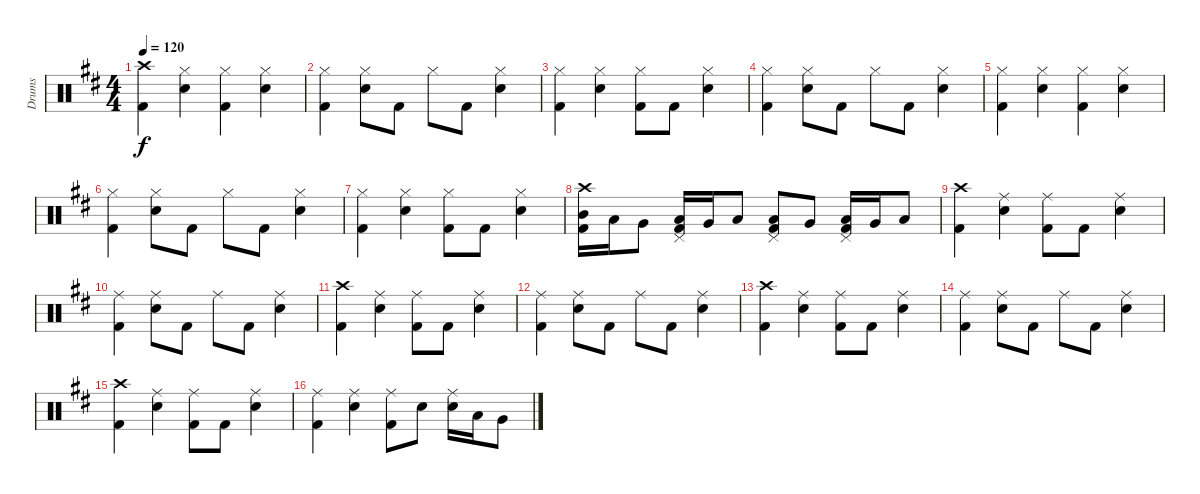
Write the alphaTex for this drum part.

\track ("Drums" "Drums") {instrument percussion}
\staff {score}
\articulation defaults
\ts (4 4)
\tempo 120
\clef neutral
\ks bminor
("Crash high (hit)" "Kick (hit) 2").4{dy f} ("Hi-Hat (closed)" "Electric Snare (hit)").4 ("Hi-Hat (closed)" "Kick (hit) 2").4 ("Hi-Hat (closed)" "Electric Snare (hit)").4 |
("Hi-Hat (closed)" "Kick (hit) 2").4 ("Hi-Hat (closed)" "Electric Snare (hit)").8 "Kick (hit) 2".8 "Hi-Hat (closed)".8 "Kick (hit) 2".8 ("Hi-Hat (closed)" "Electric Snare (hit)").4 |
("Hi-Hat (closed)" "Kick (hit) 2").4 ("Hi-Hat (closed)" "Electric Snare (hit)").4 ("Hi-Hat (closed)" "Kick (hit) 2").8 "Kick (hit) 2".8 ("Hi-Hat (closed)" "Electric Snare (hit)").4 |
("Hi-Hat (closed)" "Kick (hit) 2").4 ("Hi-Hat (closed)" "Electric Snare (hit)").8 "Kick (hit) 2".8 "Hi-Hat (closed)".8 "Kick (hit) 2".8 ("Hi-Hat (closed)" "Electric Snare (hit)").4 |
("Hi-Hat (closed)" "Kick (hit) 2").4 ("Hi-Hat (closed)" "Electric Snare (hit)").4 ("Hi-Hat (closed)" "Kick (hit) 2").4 ("Hi-Hat (closed)" "Electric Snare (hit)").4 |
("Hi-Hat (closed)" "Kick (hit) 2").4 ("Hi-Hat (closed)" "Electric Snare (hit)").8 "Kick (hit) 2".8 "Hi-Hat (closed)".8 "Kick (hit) 2".8 ("Hi-Hat (closed)" "Electric Snare (hit)").4 |
("Hi-Hat (closed)" "Kick (hit) 2").4 ("Hi-Hat (closed)" "Electric Snare (hit)").4 ("Hi-Hat (closed)" "Kick (hit) 2").8 "Kick (hit) 2".8 ("Hi-Hat (closed)" "Electric Snare (hit)").4 |
("Crash high (hit)" "Mid Tom (hit)" "Kick (hit) 2").16 "Low Tom (hit)".16 "Very Low Tom (hit)".8 ("Pedal Hi-Hat (hit)" "Low Tom (hit)" "Kick (hit) 2").16 "Very Low Tom (hit)".16 "Low Floor Tom (hit)".8 ("Pedal Hi-Hat (hit)" "Low Tom (hit)" "Kick (hit) 2").8 "Very Low Tom (hit)".8 ("Pedal Hi-Hat (hit)" "Low Tom (hit)" "Kick (hit) 2").16 "Very Low Tom (hit)".16 "Low Floor Tom (hit)".8 |
("Crash high (hit)" "Kick (hit) 2").4 ("Ride (middle)" "Electric Snare (hit)").4 ("Ride (middle)" "Kick (hit) 2").8 "Kick (hit) 2".8 ("Ride (middle)" "Electric Snare (hit)").4 |
("Ride (middle)" "Kick (hit) 2").4 ("Ride (middle)" "Electric Snare (hit)").8 "Kick (hit) 2".8 "Ride (middle)".8 "Kick (hit) 2".8 ("Ride (middle)" "Electric Snare (hit)").4 |
("Crash high (hit)" "Kick (hit) 2").4 ("Ride (middle)" "Electric Snare (hit)").4 ("Ride (middle)" "Kick (hit) 2").8 "Kick (hit) 2".8 ("Ride (middle)" "Electric Snare (hit)").4 |
("Ride (middle)" "Kick (hit) 2").4 ("Ride (middle)" "Electric Snare (hit)").8 "Kick (hit) 2".8 "Ride (middle)".8 "Kick (hit) 2".8 ("Ride (middle)" "Electric Snare (hit)").4 |
("Crash high (hit)" "Kick (hit) 2").4 ("Ride (middle)" "Electric Snare (hit)").4 ("Ride (middle)" "Kick (hit) 2").8 "Kick (hit) 2".8 ("Ride (middle)" "Electric Snare (hit)").4 |
("Ride (middle)" "Kick (hit) 2").4 ("Ride (middle)" "Electric Snare (hit)").8 "Kick (hit) 2".8 "Ride (middle)".8 "Kick (hit) 2".8 ("Ride (middle)" "Electric Snare (hit)").4 |
("Crash high (hit)" "Kick (hit) 2").4 ("Ride (middle)" "Electric Snare (hit)").4 ("Ride (middle)" "Kick (hit) 2").8 "Kick (hit) 2".8 ("Ride (middle)" "Electric Snare (hit)").4 |
("Ride (middle)" "Kick (hit) 2").4 ("Ride (middle)" "Electric Snare (hit)").4 ("Ride (middle)" "Kick (hit) 2").8 "Electric Snare (hit)".8 ("Ride (middle)" "Electric Snare (hit)").16 "Low Tom (hit)".16 "Very Low Tom (hit)".8
